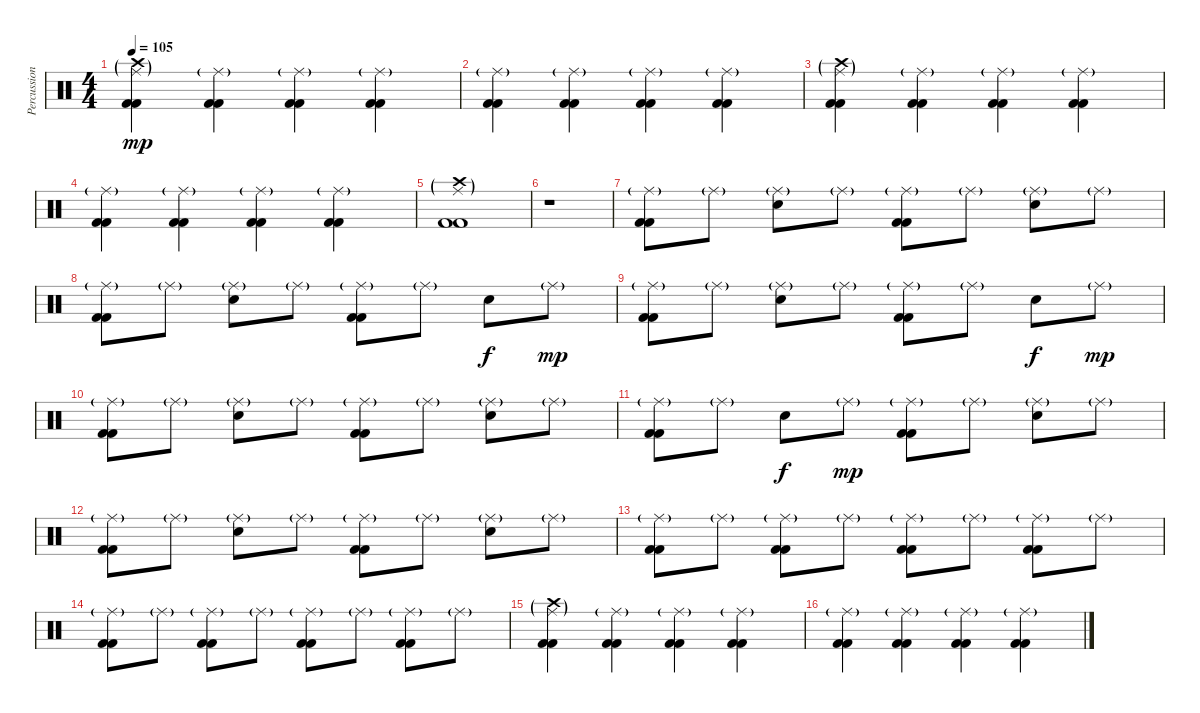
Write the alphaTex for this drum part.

\track ("Percussion" "Percussion") {instrument percussion}
\staff {score}
\articulation defaults
\ts (4 4)
\tempo 105
\clef neutral
\ks c
("Ride (middle)"{g} "Crash high (hit)"{g} "Kick (hit) 2" "Kick (hit) 2").4{dy mp} ("Ride (middle)"{g} "Kick (hit) 2" "Kick (hit) 2").4 ("Ride (middle)"{g} "Kick (hit) 2" "Kick (hit) 2").4 ("Ride (middle)"{g} "Kick (hit) 2" "Kick (hit) 2").4 |
("Ride (middle)"{g} "Kick (hit) 2" "Kick (hit) 2").4 ("Ride (middle)"{g} "Kick (hit) 2" "Kick (hit) 2").4 ("Ride (middle)"{g} "Kick (hit) 2" "Kick (hit) 2").4 ("Ride (middle)"{g} "Kick (hit) 2" "Kick (hit) 2").4 |
("Ride (middle)"{g} "Crash high (hit)"{g} "Kick (hit) 2" "Kick (hit) 2").4 ("Ride (middle)"{g} "Kick (hit) 2" "Kick (hit) 2").4 ("Ride (middle)"{g} "Kick (hit) 2" "Kick (hit) 2").4 ("Ride (middle)"{g} "Kick (hit) 2" "Kick (hit) 2").4 |
("Ride (middle)"{g} "Kick (hit) 2" "Kick (hit) 2").4 ("Ride (middle)"{g} "Kick (hit) 2" "Kick (hit) 2").4 ("Ride (middle)"{g} "Kick (hit) 2" "Kick (hit) 2").4 ("Ride (middle)"{g} "Kick (hit) 2" "Kick (hit) 2").4 |
("Ride (middle)"{g} "Crash high (hit)"{g} "Kick (hit) 2" "Kick (hit) 2").1 |
r.1 |
("Ride (middle)"{g} "Kick (hit) 2" "Kick (hit) 2").8 "Ride (middle)"{g}.8 ("Ride (middle)"{g} "Snare (hit) 2").8 "Ride (middle)"{g}.8 ("Ride (middle)"{g} "Kick (hit) 2" "Kick (hit) 2").8 "Ride (middle)"{g}.8 ("Ride (middle)"{g} "Snare (hit) 2").8 "Ride (middle)"{g}.8 |
("Ride (middle)"{g} "Kick (hit) 2" "Kick (hit) 2").8 "Ride (middle)"{g}.8 ("Ride (middle)"{g} "Snare (hit) 2").8 "Ride (middle)"{g}.8 ("Ride (middle)"{g} "Kick (hit) 2" "Kick (hit) 2").8 "Ride (middle)"{g}.8 "Snare (hit) 2".8{dy f} "Ride (middle)"{g}.8{dy mp} |
("Ride (middle)"{g} "Kick (hit) 2" "Kick (hit) 2").8 "Ride (middle)"{g}.8 ("Ride (middle)"{g} "Snare (hit) 2").8 "Ride (middle)"{g}.8 ("Ride (middle)"{g} "Kick (hit) 2" "Kick (hit) 2").8 "Ride (middle)"{g}.8 "Snare (hit) 2".8{dy f} "Ride (middle)"{g}.8{dy mp} |
("Ride (middle)"{g} "Kick (hit) 2" "Kick (hit) 2").8 "Ride (middle)"{g}.8 ("Ride (middle)"{g} "Snare (hit) 2").8 "Ride (middle)"{g}.8 ("Ride (middle)"{g} "Kick (hit) 2" "Kick (hit) 2").8 "Ride (middle)"{g}.8 ("Ride (middle)"{g} "Snare (hit) 2").8 "Ride (middle)"{g}.8 |
("Ride (middle)"{g} "Kick (hit) 2" "Kick (hit) 2").8 "Ride (middle)"{g}.8 "Snare (hit) 2".8{dy f} "Ride (middle)"{g}.8{dy mp} ("Ride (middle)"{g} "Kick (hit) 2" "Kick (hit) 2").8 "Ride (middle)"{g}.8 ("Ride (middle)"{g} "Snare (hit) 2").8 "Ride (middle)"{g}.8 |
("Ride (middle)"{g} "Kick (hit) 2" "Kick (hit) 2").8 "Ride (middle)"{g}.8 ("Ride (middle)"{g} "Snare (hit) 2").8 "Ride (middle)"{g}.8 ("Ride (middle)"{g} "Kick (hit) 2" "Kick (hit) 2").8 "Ride (middle)"{g}.8 ("Ride (middle)"{g} "Snare (hit) 2").8 "Ride (middle)"{g}.8 |
("Ride (middle)"{g} "Kick (hit) 2" "Kick (hit) 2").8 "Ride (middle)"{g}.8 ("Ride (middle)"{g} "Kick (hit) 2" "Kick (hit) 2").8 "Ride (middle)"{g}.8 ("Ride (middle)"{g} "Kick (hit) 2" "Kick (hit) 2").8 "Ride (middle)"{g}.8 ("Ride (middle)"{g} "Kick (hit) 2" "Kick (hit) 2").8 "Ride (middle)"{g}.8 |
("Ride (middle)"{g} "Kick (hit) 2" "Kick (hit) 2").8 "Ride (middle)"{g}.8 ("Ride (middle)"{g} "Kick (hit) 2" "Kick (hit) 2").8 "Ride (middle)"{g}.8 ("Ride (middle)"{g} "Kick (hit) 2" "Kick (hit) 2").8 "Ride (middle)"{g}.8 ("Ride (middle)"{g} "Kick (hit) 2" "Kick (hit) 2").8 "Ride (middle)"{g}.8 |
("Ride (middle)"{g} "Crash high (hit)"{g} "Kick (hit) 2" "Kick (hit) 2").4 ("Ride (middle)"{g} "Kick (hit) 2" "Kick (hit) 2").4 ("Ride (middle)"{g} "Kick (hit) 2" "Kick (hit) 2").4 ("Ride (middle)"{g} "Kick (hit) 2" "Kick (hit) 2").4 |
("Ride (middle)"{g} "Kick (hit) 2" "Kick (hit) 2").4 ("Ride (middle)"{g} "Kick (hit) 2" "Kick (hit) 2").4 ("Ride (middle)"{g} "Kick (hit) 2" "Kick (hit) 2").4 ("Ride (middle)"{g} "Kick (hit) 2" "Kick (hit) 2").4
